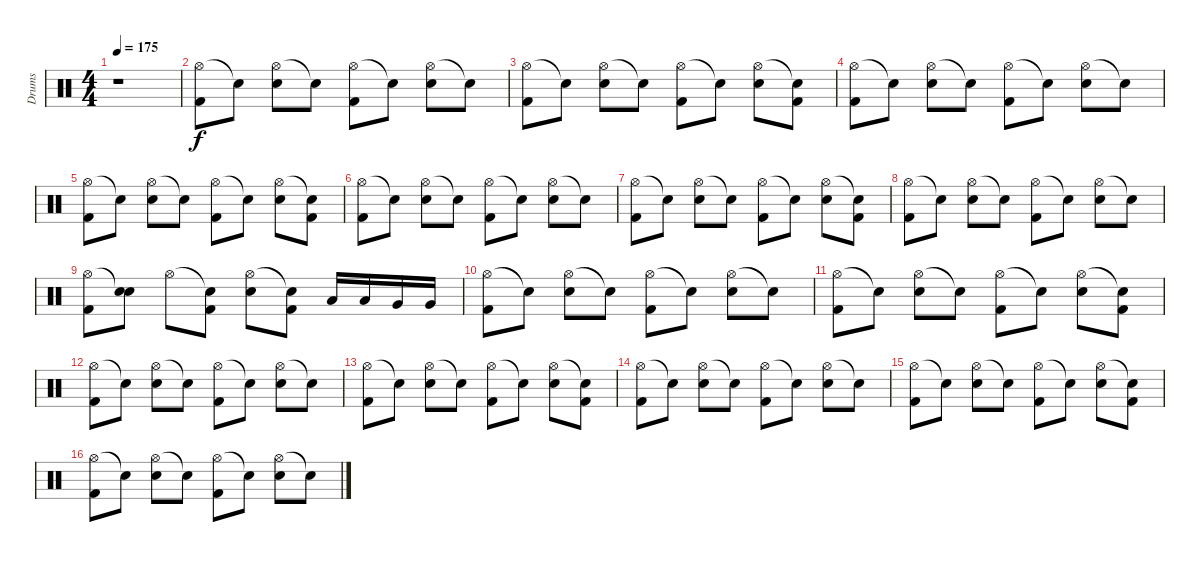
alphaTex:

\track ("Drums" "Drums") {instrument percussion}
\staff {score}
\articulation defaults
\ts (4 4)
\tempo 175
\clef neutral
\ks c
r.1{dy f} |
("Hi-Hat (open)" "Kick (hit) 2").8 "Snare (hit)"{t}.8 ("Hi-Hat (open)" "Electric Snare (hit)").8 "Snare (hit)"{t}.8 ("Hi-Hat (open)" "Kick (hit) 2").8 "Snare (hit)"{t}.8 ("Hi-Hat (open)" "Electric Snare (hit)").8 "Snare (hit)"{t}.8 |
("Hi-Hat (open)" "Kick (hit) 2").8 "Snare (hit)"{t}.8 ("Hi-Hat (open)" "Electric Snare (hit)").8 "Snare (hit)"{t}.8 ("Hi-Hat (open)" "Kick (hit) 2").8 "Snare (hit)"{t}.8 ("Hi-Hat (open)" "Electric Snare (hit)").8 ("Snare (hit)"{t} "Kick (hit) 2").8 |
("Hi-Hat (open)" "Kick (hit) 2").8 "Snare (hit)"{t}.8 ("Hi-Hat (open)" "Electric Snare (hit)").8 "Snare (hit)"{t}.8 ("Hi-Hat (open)" "Kick (hit) 2").8 "Snare (hit)"{t}.8 ("Hi-Hat (open)" "Electric Snare (hit)").8 "Snare (hit)"{t}.8 |
("Hi-Hat (open)" "Kick (hit) 2").8 "Snare (hit)"{t}.8 ("Hi-Hat (open)" "Electric Snare (hit)").8 "Snare (hit)"{t}.8 ("Hi-Hat (open)" "Kick (hit) 2").8 "Snare (hit)"{t}.8 ("Hi-Hat (open)" "Electric Snare (hit)").8 ("Snare (hit)"{t} "Kick (hit) 2").8 |
("Hi-Hat (open)" "Kick (hit) 2").8 "Snare (hit)"{t}.8 ("Hi-Hat (open)" "Electric Snare (hit)").8 "Snare (hit)"{t}.8 ("Hi-Hat (open)" "Kick (hit) 2").8 "Snare (hit)"{t}.8 ("Hi-Hat (open)" "Electric Snare (hit)").8 "Snare (hit)"{t}.8 |
("Hi-Hat (open)" "Kick (hit) 2").8 "Snare (hit)"{t}.8 ("Hi-Hat (open)" "Electric Snare (hit)").8 "Snare (hit)"{t}.8 ("Hi-Hat (open)" "Kick (hit) 2").8 "Snare (hit)"{t}.8 ("Hi-Hat (open)" "Electric Snare (hit)").8 ("Snare (hit)"{t} "Kick (hit) 2").8 |
("Hi-Hat (open)" "Kick (hit) 2").8 "Snare (hit)"{t}.8 ("Hi-Hat (open)" "Electric Snare (hit)").8 "Snare (hit)"{t}.8 ("Hi-Hat (open)" "Kick (hit) 2").8 "Snare (hit)"{t}.8 ("Hi-Hat (open)" "Electric Snare (hit)").8 "Snare (hit)"{t}.8 |
("Hi-Hat (open)" "Kick (hit) 2").8 ("Snare (hit)"{t} "Electric Snare (hit)").8 "Hi-Hat (open)".8 ("Snare (hit)"{t} "Kick (hit) 2").8 ("Hi-Hat (open)" "Electric Snare (hit)").8 ("Snare (hit)"{t} "Kick (hit) 2").8 "Low Tom (hit)".16 "Low Tom (hit)".16 "Very Low Tom (hit)".16 "Very Low Tom (hit)".16 |
("Hi-Hat (open)" "Kick (hit) 2").8 "Snare (hit)"{t}.8 ("Hi-Hat (open)" "Electric Snare (hit)").8 "Snare (hit)"{t}.8 ("Hi-Hat (open)" "Kick (hit) 2").8 "Snare (hit)"{t}.8 ("Hi-Hat (open)" "Electric Snare (hit)").8 "Snare (hit)"{t}.8 |
("Hi-Hat (open)" "Kick (hit) 2").8 "Snare (hit)"{t}.8 ("Hi-Hat (open)" "Electric Snare (hit)").8 "Snare (hit)"{t}.8 ("Hi-Hat (open)" "Kick (hit) 2").8 "Snare (hit)"{t}.8 ("Hi-Hat (open)" "Electric Snare (hit)").8 ("Snare (hit)"{t} "Kick (hit) 2").8 |
("Hi-Hat (open)" "Kick (hit) 2").8 "Snare (hit)"{t}.8 ("Hi-Hat (open)" "Electric Snare (hit)").8 "Snare (hit)"{t}.8 ("Hi-Hat (open)" "Kick (hit) 2").8 "Snare (hit)"{t}.8 ("Hi-Hat (open)" "Electric Snare (hit)").8 "Snare (hit)"{t}.8 |
("Hi-Hat (open)" "Kick (hit) 2").8 "Snare (hit)"{t}.8 ("Hi-Hat (open)" "Electric Snare (hit)").8 "Snare (hit)"{t}.8 ("Hi-Hat (open)" "Kick (hit) 2").8 "Snare (hit)"{t}.8 ("Hi-Hat (open)" "Electric Snare (hit)").8 ("Snare (hit)"{t} "Kick (hit) 2").8 |
("Hi-Hat (open)" "Kick (hit) 2").8 "Snare (hit)"{t}.8 ("Hi-Hat (open)" "Electric Snare (hit)").8 "Snare (hit)"{t}.8 ("Hi-Hat (open)" "Kick (hit) 2").8 "Snare (hit)"{t}.8 ("Hi-Hat (open)" "Electric Snare (hit)").8 "Snare (hit)"{t}.8 |
("Hi-Hat (open)" "Kick (hit) 2").8 "Snare (hit)"{t}.8 ("Hi-Hat (open)" "Electric Snare (hit)").8 "Snare (hit)"{t}.8 ("Hi-Hat (open)" "Kick (hit) 2").8 "Snare (hit)"{t}.8 ("Hi-Hat (open)" "Electric Snare (hit)").8 ("Snare (hit)"{t} "Kick (hit) 2").8 |
("Hi-Hat (open)" "Kick (hit) 2").8 "Snare (hit)"{t}.8 ("Hi-Hat (open)" "Electric Snare (hit)").8 "Snare (hit)"{t}.8 ("Hi-Hat (open)" "Kick (hit) 2").8 "Snare (hit)"{t}.8 ("Hi-Hat (open)" "Electric Snare (hit)").8 "Snare (hit)"{t}.8
